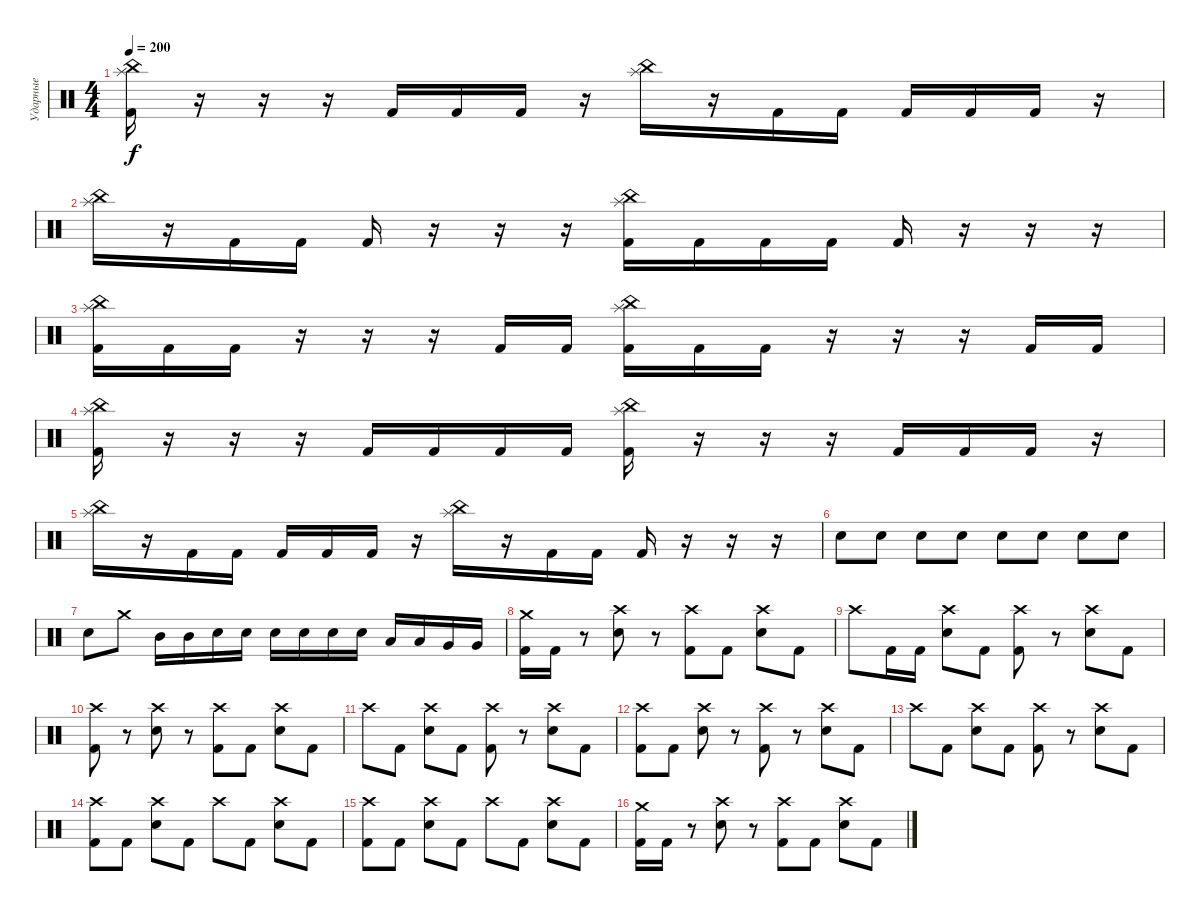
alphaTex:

\track ("Ударные" "Ударные") {instrument percussion}
\staff {score}
\articulation defaults
\ts (4 4)
\tempo 200
\clef neutral
\ks c
("China (hit)" "Splash (hit)" "Kick (hit) 2").16{dy f} r.16 r.16 r.16 "Kick (hit) 2".16 "Kick (hit) 2".16 "Kick (hit) 2".16 r.16 ("China (hit)" "Splash (hit)").16 r.16 "Kick (hit) 2".16 "Kick (hit) 2".16 "Kick (hit) 2".16 "Kick (hit) 2".16 "Kick (hit) 2".16 r.16 |
("China (hit)" "Splash (hit)").16 r.16 "Kick (hit) 2".16 "Kick (hit) 2".16 "Kick (hit) 2".16 r.16 r.16 r.16 ("China (hit)" "Splash (hit)" "Kick (hit) 2").16 "Kick (hit) 2".16 "Kick (hit) 2".16 "Kick (hit) 2".16 "Kick (hit) 2".16 r.16 r.16 r.16 |
("China (hit)" "Splash (hit)" "Kick (hit) 2").16 "Kick (hit) 2".16 "Kick (hit) 2".16 r.16 r.16 r.16 "Kick (hit) 2".16 "Kick (hit) 2".16 ("China (hit)" "Splash (hit)" "Kick (hit) 2").16 "Kick (hit) 2".16 "Kick (hit) 2".16 r.16 r.16 r.16 "Kick (hit) 2".16 "Kick (hit) 2".16 |
("China (hit)" "Splash (hit)" "Kick (hit) 2").16 r.16 r.16 r.16 "Kick (hit) 2".16 "Kick (hit) 2".16 "Kick (hit) 2".16 "Kick (hit) 2".16 ("China (hit)" "Splash (hit)" "Kick (hit) 2").16 r.16 r.16 r.16 "Kick (hit) 2".16 "Kick (hit) 2".16 "Kick (hit) 2".16 r.16 |
("China (hit)" "Splash (hit)").16 r.16 "Kick (hit) 2".16 "Kick (hit) 2".16 "Kick (hit) 2".16 "Kick (hit) 2".16 "Kick (hit) 2".16 r.16 ("China (hit)" "Splash (hit)").16 r.16 "Kick (hit) 2".16 "Kick (hit) 2".16 "Kick (hit) 2".16 r.16 r.16 r.16 |
"Snare (hit) 2".8 "Snare (hit) 2".8 "Snare (hit) 2".8 "Snare (hit) 2".8 "Snare (hit) 2".8 "Snare (hit) 2".8 "Snare (hit) 2".8 "Snare (hit) 2".8 |
"Snare (hit) 2".8 "Crash medium (hit)".8 "Mid Tom (hit)".16 "Mid Tom (hit)".16 "Snare (hit) 2".16 "Snare (hit) 2".16 "Snare (hit) 2".16 "Snare (hit) 2".16 "Snare (hit) 2".16 "Snare (hit) 2".16 "Low Tom (hit)".16 "Low Tom (hit)".16 "Very Low Tom (hit)".16 "Very Low Tom (hit)".16 |
("Crash medium (hit)" "Kick (hit) 2").16 "Kick (hit) 2".16 r.8 ("Crash high (hit)" "Snare (hit) 2").8 r.8 ("Crash high (hit)" "Kick (hit) 2").8 "Kick (hit) 2".8 ("Crash high (hit)" "Snare (hit) 2").8 "Kick (hit) 2".8 |
"Crash high (hit)".8 "Kick (hit) 2".16 "Kick (hit) 2".16 ("Crash high (hit)" "Snare (hit) 2").8 "Kick (hit) 2".8 ("Crash high (hit)" "Kick (hit) 2").8 r.8 ("Crash high (hit)" "Snare (hit) 2").8 "Kick (hit) 2".8 |
("Crash high (hit)" "Kick (hit) 2").8 r.8 ("Crash high (hit)" "Snare (hit) 2").8 r.8 ("Crash high (hit)" "Kick (hit) 2").8 "Kick (hit) 2".8 ("Crash high (hit)" "Snare (hit) 2").8 "Kick (hit) 2".8 |
"Crash high (hit)".8 "Kick (hit) 2".8 ("Crash high (hit)" "Snare (hit) 2").8 "Kick (hit) 2".8 ("Crash high (hit)" "Kick (hit) 2").8 r.8 ("Crash high (hit)" "Snare (hit) 2").8 "Kick (hit) 2".8 |
("Crash high (hit)" "Kick (hit) 2").8 "Kick (hit) 2".8 ("Crash high (hit)" "Snare (hit) 2").8 r.8 ("Crash high (hit)" "Kick (hit) 2").8 r.8 ("Crash high (hit)" "Snare (hit) 2").8 "Kick (hit) 2".8 |
"Crash high (hit)".8 "Kick (hit) 2".8 ("Crash high (hit)" "Snare (hit) 2").8 "Kick (hit) 2".8 ("Crash high (hit)" "Kick (hit) 2").8 r.8 ("Crash high (hit)" "Snare (hit) 2").8 "Kick (hit) 2".8 |
("Crash high (hit)" "Kick (hit) 2").8 "Kick (hit) 2".8 ("Crash high (hit)" "Snare (hit) 2").8 "Kick (hit) 2".8 "Crash high (hit)".8 "Kick (hit) 2".8 ("Crash high (hit)" "Snare (hit) 2").8 "Kick (hit) 2".8 |
("Crash high (hit)" "Kick (hit) 2").8 "Kick (hit) 2".8 ("Crash high (hit)" "Snare (hit) 2").8 "Kick (hit) 2".8 "Crash high (hit)".8 "Kick (hit) 2".8 ("Crash high (hit)" "Snare (hit) 2").8 "Kick (hit) 2".8 |
("Crash medium (hit)" "Kick (hit) 2").16 "Kick (hit) 2".16 r.8 ("Crash high (hit)" "Snare (hit) 2").8 r.8 ("Crash high (hit)" "Kick (hit) 2").8 "Kick (hit) 2".8 ("Crash high (hit)" "Snare (hit) 2").8 "Kick (hit) 2".8
